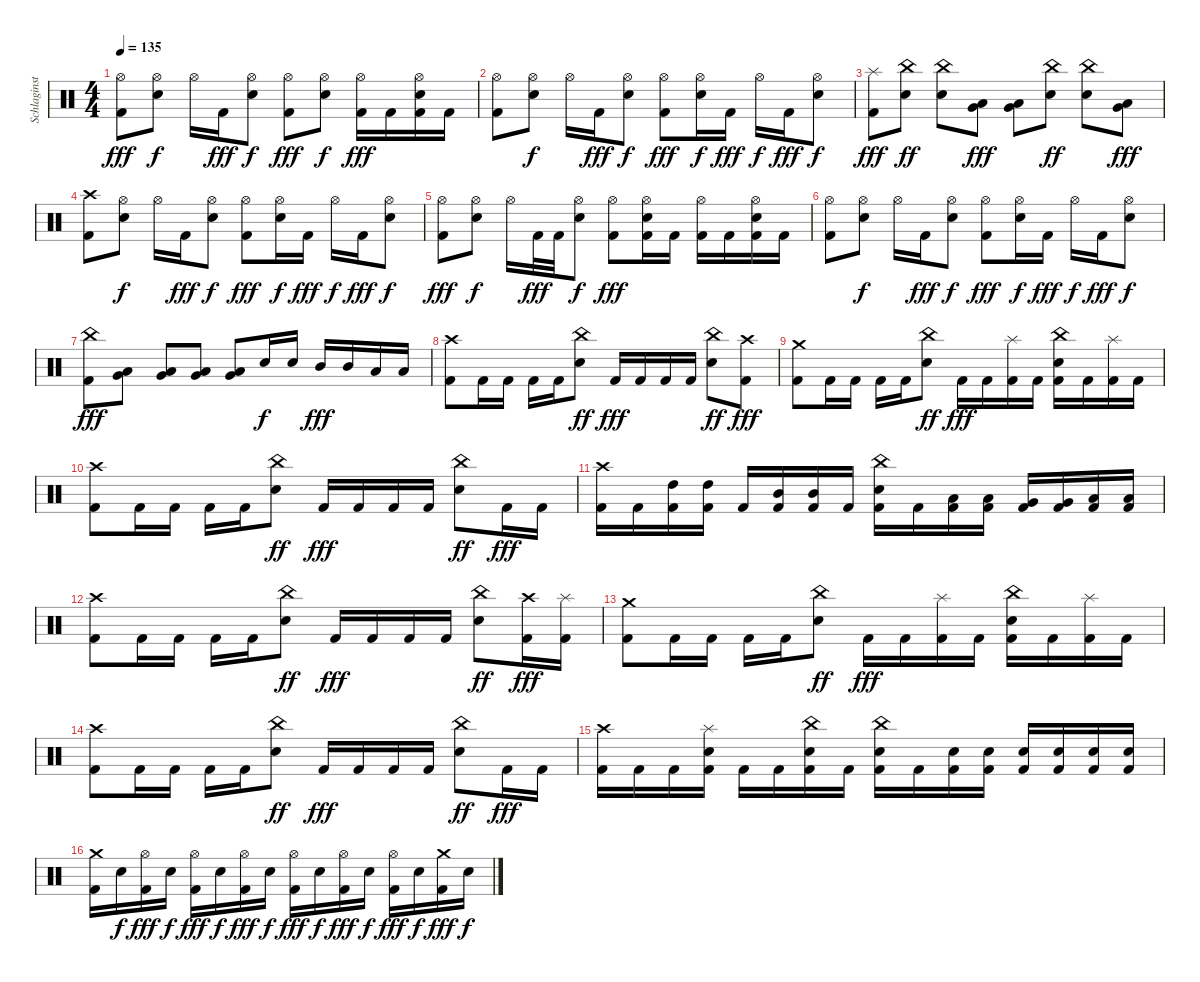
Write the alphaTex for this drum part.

\track ("Schlaginstrumente - Auswahl" "Schlaginst") {instrument percussion}
\staff {score}
\articulation defaults
\ts (4 4)
\tempo 135
\clef neutral
\ks c
("Hi-Hat (open)" "Kick (hit) 2").8{dy fff} ("Hi-Hat (open)" "Snare (hit) 2").8{dy f} "Hi-Hat (open)".16 "Kick (hit) 2".16{dy fff} ("Hi-Hat (open)" "Snare (hit) 2").8{dy f} ("Hi-Hat (open)" "Kick (hit) 2").8{dy fff} ("Hi-Hat (open)" "Snare (hit) 2").8{dy f} ("Hi-Hat (open)" "Kick (hit) 2").16{dy fff} "Kick (hit) 2".16 ("Hi-Hat (open)" "Snare (hit) 2" "Kick (hit) 2").16 "Kick (hit) 2".16 |
("Hi-Hat (open)" "Kick (hit) 2").8 ("Hi-Hat (open)" "Snare (hit) 2").8{dy f} "Hi-Hat (open)".16 "Kick (hit) 2".16{dy fff} ("Hi-Hat (open)" "Snare (hit) 2").8{dy f} ("Hi-Hat (open)" "Kick (hit) 2").8{dy fff} ("Hi-Hat (open)" "Snare (hit) 2").16{dy f} "Kick (hit) 2".16{dy fff} "Hi-Hat (open)".16{dy f} "Kick (hit) 2".16{dy fff} ("Hi-Hat (open)" "Snare (hit) 2").8{dy f} |
("Splash (hit)" "Kick (hit) 2").8{dy fff} ("China (hit)" "Snare (hit) 2").8{dy ff} ("China (hit)" "Snare (hit) 2").8 ("Very Low Tom (hit)" "Low Floor Tom (hit)").8{dy fff} ("Very Low Tom (hit)" "Low Floor Tom (hit)").8 ("China (hit)" "Snare (hit) 2").8{dy ff} ("China (hit)" "Snare (hit) 2").8 ("Very Low Tom (hit)" "Low Floor Tom (hit)").8{dy fff} |
("Crash high (hit)" "Kick (hit) 2").8 ("Hi-Hat (open)" "Snare (hit) 2").8{dy f} "Hi-Hat (open)".16 "Kick (hit) 2".16{dy fff} ("Hi-Hat (open)" "Snare (hit) 2").8{dy f} ("Hi-Hat (open)" "Kick (hit) 2").8{dy fff} ("Hi-Hat (open)" "Snare (hit) 2").16{dy f} "Kick (hit) 2".16{dy fff} "Hi-Hat (open)".16{dy f} "Kick (hit) 2".16{dy fff} ("Hi-Hat (open)" "Snare (hit) 2").8{dy f} |
("Hi-Hat (open)" "Kick (hit) 2").8{dy fff} ("Hi-Hat (open)" "Snare (hit) 2").8{dy f} "Hi-Hat (open)".16 "Kick (hit) 2".32{dy fff} "Kick (hit) 2".32 ("Hi-Hat (open)" "Snare (hit) 2").8{dy f} ("Hi-Hat (open)" "Kick (hit) 2").8{dy fff} ("Hi-Hat (open)" "Snare (hit) 2" "Kick (hit) 2").16 "Kick (hit) 2".16 ("Hi-Hat (open)" "Kick (hit) 2").16 "Kick (hit) 2".16 ("Hi-Hat (open)" "Snare (hit) 2" "Kick (hit) 2").16 "Kick (hit) 2".16 |
("Hi-Hat (open)" "Kick (hit) 2").8 ("Hi-Hat (open)" "Snare (hit) 2").8{dy f} "Hi-Hat (open)".16 "Kick (hit) 2".16{dy fff} ("Hi-Hat (open)" "Snare (hit) 2").8{dy f} ("Hi-Hat (open)" "Kick (hit) 2").8{dy fff} ("Hi-Hat (open)" "Snare (hit) 2").16{dy f} "Kick (hit) 2".16{dy fff} "Hi-Hat (open)".16{dy f} "Kick (hit) 2".16{dy fff} ("Hi-Hat (open)" "Snare (hit) 2").8{dy f} |
("China (hit)" "Kick (hit) 2").8{dy fff} ("Very Low Tom (hit)" "Low Floor Tom (hit)").8 ("Very Low Tom (hit)" "Low Floor Tom (hit)").8 ("Very Low Tom (hit)" "Low Floor Tom (hit)").8 ("Very Low Tom (hit)" "Low Floor Tom (hit)").8 "Snare (hit) 2".16{dy f} "Snare (hit) 2".16 "Mid Tom (hit)".16{dy fff} "Mid Tom (hit)".16 "Low Tom (hit)".16 "Low Tom (hit)".16 |
("Crash high (hit)" "Kick (hit) 2").8 "Kick (hit) 2".16 "Kick (hit) 2".16 "Kick (hit) 2".16 "Kick (hit) 2".16 ("China (hit)" "Snare (hit) 2").8{dy ff} "Kick (hit) 2".16{dy fff} "Kick (hit) 2".16 "Kick (hit) 2".16 "Kick (hit) 2".16 ("China (hit)" "Snare (hit) 2").8{dy ff} ("Crash high (hit)" "Kick (hit) 2").8{dy fff} |
("Crash medium (hit)" "Kick (hit) 2").8 "Kick (hit) 2".16 "Kick (hit) 2".16 "Kick (hit) 2".16 "Kick (hit) 2".16 ("China (hit)" "Snare (hit) 2").8{dy ff} "Kick (hit) 2".16{dy fff} "Kick (hit) 2".16 ("Splash (hit)" "Kick (hit) 2").16 "Kick (hit) 2".16 ("China (hit)" "Snare (hit) 2" "Kick (hit) 2").16 "Kick (hit) 2".16 ("Splash (hit)" "Kick (hit) 2").16 "Kick (hit) 2".16 |
("Crash high (hit)" "Kick (hit) 2").8 "Kick (hit) 2".16 "Kick (hit) 2".16 "Kick (hit) 2".16 "Kick (hit) 2".16 ("China (hit)" "Snare (hit) 2").8{dy ff} "Kick (hit) 2".16{dy fff} "Kick (hit) 2".16 "Kick (hit) 2".16 "Kick (hit) 2".16 ("China (hit)" "Snare (hit) 2").8{dy ff} "Kick (hit) 2".16{dy fff} "Kick (hit) 2".16 |
("Crash high (hit)" "Kick (hit) 2").16 "Kick (hit) 2".16 ("High Tom (hit)" "Kick (hit) 2").16 ("High Tom (hit)" "Kick (hit) 2").16 "Kick (hit) 2".16 ("Mid Tom (hit)" "Kick (hit) 2").16 ("Mid Tom (hit)" "Kick (hit) 2").16 "Kick (hit) 2".16 ("China (hit)" "Snare (hit) 2" "Kick (hit) 2").16 "Kick (hit) 2".16 ("Low Tom (hit)" "Kick (hit) 2").16 ("Low Tom (hit)" "Kick (hit) 2").16 ("Very Low Tom (hit)" "Kick (hit) 2").16 ("Very Low Tom (hit)" "Kick (hit) 2").16 ("Low Floor Tom (hit)" "Kick (hit) 2").16 ("Low Floor Tom (hit)" "Kick (hit) 2").16 |
("Crash high (hit)" "Kick (hit) 2").8 "Kick (hit) 2".16 "Kick (hit) 2".16 "Kick (hit) 2".16 "Kick (hit) 2".16 ("China (hit)" "Snare (hit) 2").8{dy ff} "Kick (hit) 2".16{dy fff} "Kick (hit) 2".16 "Kick (hit) 2".16 "Kick (hit) 2".16 ("China (hit)" "Snare (hit) 2").8{dy ff} ("Crash high (hit)" "Kick (hit) 2").16{dy fff} ("Splash (hit)" "Kick (hit) 2").16 |
("Crash medium (hit)" "Kick (hit) 2").8 "Kick (hit) 2".16 "Kick (hit) 2".16 "Kick (hit) 2".16 "Kick (hit) 2".16 ("China (hit)" "Snare (hit) 2").8{dy ff} "Kick (hit) 2".16{dy fff} "Kick (hit) 2".16 ("Splash (hit)" "Kick (hit) 2").16 "Kick (hit) 2".16 ("China (hit)" "Snare (hit) 2" "Kick (hit) 2").16 "Kick (hit) 2".16 ("Splash (hit)" "Kick (hit) 2").16 "Kick (hit) 2".16 |
("Crash high (hit)" "Kick (hit) 2").8 "Kick (hit) 2".16 "Kick (hit) 2".16 "Kick (hit) 2".16 "Kick (hit) 2".16 ("China (hit)" "Snare (hit) 2").8{dy ff} "Kick (hit) 2".16{dy fff} "Kick (hit) 2".16 "Kick (hit) 2".16 "Kick (hit) 2".16 ("China (hit)" "Snare (hit) 2").8{dy ff} "Kick (hit) 2".16{dy fff} "Kick (hit) 2".16 |
("Crash high (hit)" "Kick (hit) 2").16 "Kick (hit) 2".16 "Kick (hit) 2".16 ("Splash (hit)" "Snare (hit) 2" "Kick (hit) 2").16 "Kick (hit) 2".16 "Kick (hit) 2".16 ("China (hit)" "Snare (hit) 2" "Kick (hit) 2").16 "Kick (hit) 2".16 ("China (hit)" "Snare (hit) 2" "Kick (hit) 2").16 "Kick (hit) 2".16 ("Snare (hit) 2" "Kick (hit) 2").16 ("Snare (hit) 2" "Kick (hit) 2").16 ("Snare (hit) 2" "Kick (hit) 2").16 ("Snare (hit) 2" "Kick (hit) 2").16 ("Snare (hit) 2" "Kick (hit) 2").16 ("Snare (hit) 2" "Kick (hit) 2").16 |
("Crash medium (hit)" "Kick (hit) 2").16 "Snare (hit) 2".16{dy f} ("Hi-Hat (open)" "Kick (hit) 2").16{dy fff} "Snare (hit) 2".16{dy f} ("Hi-Hat (open)" "Kick (hit) 2").16{dy fff} "Snare (hit) 2".16{dy f} ("Hi-Hat (open)" "Kick (hit) 2").16{dy fff} "Snare (hit) 2".16{dy f} ("Hi-Hat (open)" "Kick (hit) 2").16{dy fff} "Snare (hit) 2".16{dy f} ("Hi-Hat (open)" "Kick (hit) 2").16{dy fff} "Snare (hit) 2".16{dy f} ("Hi-Hat (open)" "Kick (hit) 2").16{dy fff} "Snare (hit) 2".16{dy f} ("Crash medium (hit)" "Kick (hit) 2").16{dy fff} "Snare (hit) 2".16{dy f}
